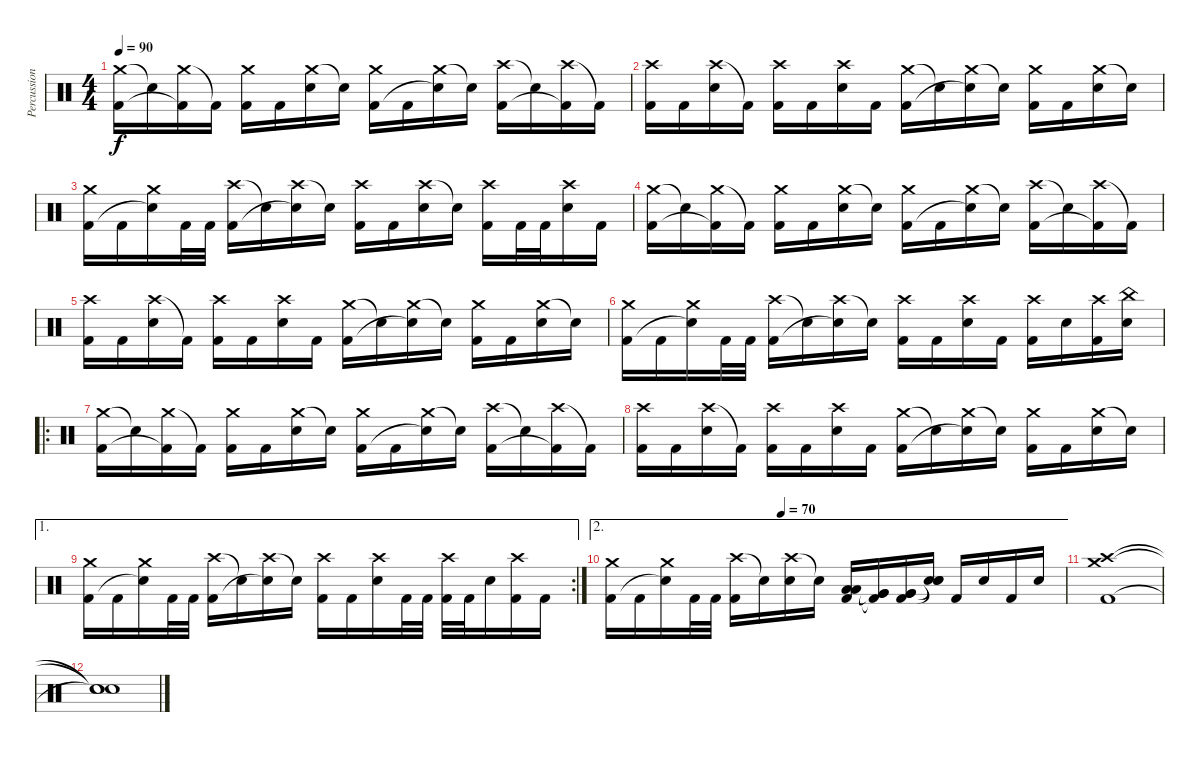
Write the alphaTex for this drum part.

\track ("Percussion" "Percussion") {instrument percussion}
\staff {score}
\articulation defaults
\ts (4 4)
\tempo 90
\clef neutral
\ks c
("Crash medium (hit)" "Kick (hit) 2").16{dy f} "Snare (hit)"{t}.16 ("Crash medium (hit)" "Kick (hit) 2"{t}).16 "Kick (hit) 2"{t}.16 ("Crash medium (hit)" "Kick (hit) 2").16 "Kick (hit) 2".16 ("Crash medium (hit)" "Electric Snare (hit)").16 "Snare (hit)"{t}.16 ("Crash medium (hit)" "Kick (hit) 2").16 "Kick (hit) 2".16 ("Crash medium (hit)" "Snare (hit)"{t}).16 "Snare (hit)"{t}.16 ("Crash high (hit)" "Kick (hit) 2").16 "Snare (hit)"{t}.16 ("Crash high (hit)" "Kick (hit) 2"{t}).16 "Kick (hit) 2"{t}.16 |
("Crash high (hit)" "Kick (hit) 2").16 "Kick (hit) 2".16 ("Crash high (hit)" "Electric Snare (hit)").16 "Kick (hit) 2"{t}.16 ("Crash high (hit)" "Kick (hit) 2").16 "Kick (hit) 2".16 ("Crash high (hit)" "Electric Snare (hit)").16 "Kick (hit) 2".16 ("Crash medium (hit)" "Kick (hit) 2").16 "Snare (hit)"{t}.16 ("Crash medium (hit)" "Snare (hit)"{t}).16 "Snare (hit)"{t}.16 ("Crash medium (hit)" "Kick (hit) 2").16 "Kick (hit) 2".16 ("Crash medium (hit)" "Electric Snare (hit)").16 "Snare (hit)"{t}.16 |
("Crash medium (hit)" "Kick (hit) 2").16 "Kick (hit) 2".16 ("Crash medium (hit)" "Snare (hit)"{t}).16 "Kick (hit) 2".32 "Kick (hit) 2".32 ("Crash high (hit)" "Kick (hit) 2").16 "Snare (hit)"{t}.16 ("Crash high (hit)" "Snare (hit)"{t}).16 "Snare (hit)"{t}.16 ("Crash high (hit)" "Kick (hit) 2").16 "Kick (hit) 2".16 ("Crash high (hit)" "Electric Snare (hit)").16 "Snare (hit)"{t}.16 ("Crash high (hit)" "Kick (hit) 2").16 "Kick (hit) 2".32 "Kick (hit) 2".32 ("Crash high (hit)" "Electric Snare (hit)").16 "Kick (hit) 2".16 |
("Crash medium (hit)" "Kick (hit) 2").16 "Snare (hit)"{t}.16 ("Crash medium (hit)" "Kick (hit) 2"{t}).16 "Kick (hit) 2"{t}.16 ("Crash medium (hit)" "Kick (hit) 2").16 "Kick (hit) 2".16 ("Crash medium (hit)" "Electric Snare (hit)").16 "Snare (hit)"{t}.16 ("Crash medium (hit)" "Kick (hit) 2").16 "Kick (hit) 2".16 ("Crash medium (hit)" "Snare (hit)"{t}).16 "Snare (hit)"{t}.16 ("Crash high (hit)" "Kick (hit) 2").16 "Snare (hit)"{t}.16 ("Crash high (hit)" "Kick (hit) 2"{t}).16 "Kick (hit) 2"{t}.16 |
("Crash high (hit)" "Kick (hit) 2").16 "Kick (hit) 2".16 ("Crash high (hit)" "Electric Snare (hit)").16 "Kick (hit) 2"{t}.16 ("Crash high (hit)" "Kick (hit) 2").16 "Kick (hit) 2".16 ("Crash high (hit)" "Electric Snare (hit)").16 "Kick (hit) 2".16 ("Crash medium (hit)" "Kick (hit) 2").16 "Snare (hit)"{t}.16 ("Crash medium (hit)" "Snare (hit)"{t}).16 "Snare (hit)"{t}.16 ("Crash medium (hit)" "Kick (hit) 2").16 "Kick (hit) 2".16 ("Crash medium (hit)" "Electric Snare (hit)").16 "Snare (hit)"{t}.16 |
("Crash medium (hit)" "Kick (hit) 2").16 "Kick (hit) 2".16 ("Crash medium (hit)" "Snare (hit)"{t}).16 "Kick (hit) 2".32 "Kick (hit) 2".32 ("Crash high (hit)" "Kick (hit) 2").16 "Snare (hit)"{t}.16 ("Crash high (hit)" "Snare (hit)"{t}).16 "Snare (hit)"{t}.16 ("Crash high (hit)" "Kick (hit) 2").16 "Kick (hit) 2".16 ("Crash high (hit)" "Electric Snare (hit)").16 "Kick (hit) 2".16 ("Crash high (hit)" "Kick (hit) 2").16 "Electric Snare (hit)".16 ("Crash high (hit)" "Kick (hit) 2").16 ("China (hit)" "Electric Snare (hit)").16 |
\ro
("Crash medium (hit)" "Kick (hit) 2").16 "Snare (hit)"{t}.16 ("Crash medium (hit)" "Kick (hit) 2"{t}).16 "Kick (hit) 2"{t}.16 ("Crash medium (hit)" "Kick (hit) 2").16 "Kick (hit) 2".16 ("Crash medium (hit)" "Electric Snare (hit)").16 "Snare (hit)"{t}.16 ("Crash medium (hit)" "Kick (hit) 2").16 "Kick (hit) 2".16 ("Crash medium (hit)" "Snare (hit)"{t}).16 "Snare (hit)"{t}.16 ("Crash high (hit)" "Kick (hit) 2").16 "Snare (hit)"{t}.16 ("Crash high (hit)" "Kick (hit) 2"{t}).16 "Kick (hit) 2"{t}.16 |
("Crash high (hit)" "Kick (hit) 2").16 "Kick (hit) 2".16 ("Crash high (hit)" "Electric Snare (hit)").16 "Kick (hit) 2"{t}.16 ("Crash high (hit)" "Kick (hit) 2").16 "Kick (hit) 2".16 ("Crash high (hit)" "Electric Snare (hit)").16 "Kick (hit) 2".16 ("Crash medium (hit)" "Kick (hit) 2").16 "Snare (hit)"{t}.16 ("Crash medium (hit)" "Snare (hit)"{t}).16 "Snare (hit)"{t}.16 ("Crash medium (hit)" "Kick (hit) 2").16 "Kick (hit) 2".16 ("Crash medium (hit)" "Electric Snare (hit)").16 "Snare (hit)"{t}.16 |
\ae 1
\rc 2
("Crash medium (hit)" "Kick (hit) 2").16 "Kick (hit) 2".16 ("Crash medium (hit)" "Snare (hit)"{t}).16 "Kick (hit) 2".32 "Kick (hit) 2".32 ("Crash high (hit)" "Kick (hit) 2").16 "Snare (hit)"{t}.16 ("Crash high (hit)" "Snare (hit)"{t}).16 "Snare (hit)"{t}.16 ("Crash high (hit)" "Kick (hit) 2").16 "Kick (hit) 2".16 ("Crash high (hit)" "Electric Snare (hit)").16 "Kick (hit) 2".32 "Kick (hit) 2".32 ("Crash high (hit)" "Kick (hit) 2").32 "Kick (hit) 2".32 "Electric Snare (hit)".16 ("Crash high (hit)" "Kick (hit) 2").16 "Kick (hit) 2".16 |
\ae 2
\tempo (70 0.375)
("Crash medium (hit)" "Kick (hit) 2").16 "Kick (hit) 2".16 ("Crash medium (hit)" "Snare (hit)"{t}).16 "Kick (hit) 2".32 "Kick (hit) 2".32 ("Crash high (hit)" "Kick (hit) 2").16 "Snare (hit)"{t}.16 ("Crash high (hit)" "Electric Snare (hit)").16 "Snare (hit)"{t}.16 ("Low Tom (hit)" "Low Tom (hit)" "Kick (hit) 2").16 ("Very Low Tom (hit)"{t} "Very Low Tom (hit)"{t} "Kick (hit) 2"{t}).16 ("Very Low Tom (hit)" "Very Low Tom (hit)" "Kick (hit) 2").16 ("Snare (hit)"{t} "Snare (hit)"{t} "Snare (hit)"{t}).16 "Kick (hit) 2".16 "Electric Snare (hit)".16 "Kick (hit) 2".16 "Electric Snare (hit)".16 |
("Crash medium (hit)" "Crash high (hit)" "Kick (hit) 2").1 |
("Snare (hit)"{t} "Snare (hit)"{t} "Snare (hit)"{t}).1
